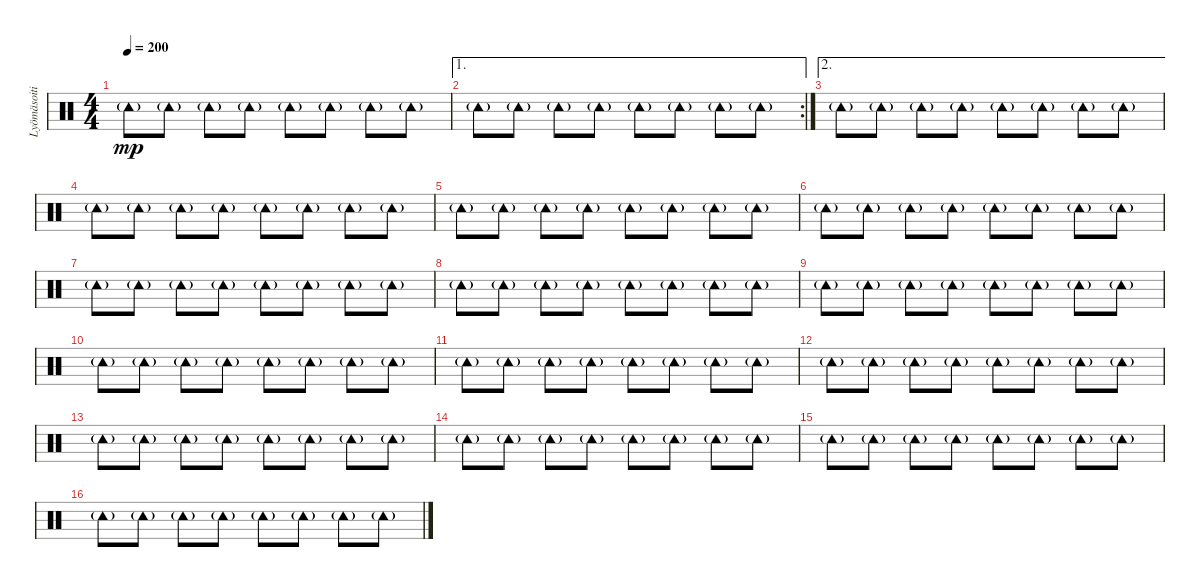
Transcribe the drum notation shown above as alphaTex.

\track ("Lyömäsoitin" "Lyömäsoiti") {instrument percussion}
\staff {score}
\articulation defaults
\ts (4 4)
\tempo 200
\clef neutral
\ks c "Tambourine (hit)"{g}.8{dy mp} "Tambourine (hit)"{g}.8 "Tambourine (hit)"{g}.8 "Tambourine (hit)"{g}.8 "Tambourine (hit)"{g}.8 "Tambourine (hit)"{g}.8 "Tambourine (hit)"{g}.8 "Tambourine (hit)"{g}.8
|
\ae 1
\rc 2 "Tambourine (hit)"{g}.8 "Tambourine (hit)"{g}.8 "Tambourine (hit)"{g}.8 "Tambourine (hit)"{g}.8 "Tambourine (hit)"{g}.8 "Tambourine (hit)"{g}.8 "Tambourine (hit)"{g}.8 "Tambourine (hit)"{g}.8
|
\ae 2 "Tambourine (hit)"{g}.8 "Tambourine (hit)"{g}.8 "Tambourine (hit)"{g}.8 "Tambourine (hit)"{g}.8 "Tambourine (hit)"{g}.8 "Tambourine (hit)"{g}.8 "Tambourine (hit)"{g}.8 "Tambourine (hit)"{g}.8
|
"Tambourine (hit)"{g}.8 "Tambourine (hit)"{g}.8 "Tambourine (hit)"{g}.8 "Tambourine (hit)"{g}.8 "Tambourine (hit)"{g}.8 "Tambourine (hit)"{g}.8 "Tambourine (hit)"{g}.8 "Tambourine (hit)"{g}.8 |
"Tambourine (hit)"{g}.8 "Tambourine (hit)"{g}.8 "Tambourine (hit)"{g}.8 "Tambourine (hit)"{g}.8 "Tambourine (hit)"{g}.8 "Tambourine (hit)"{g}.8 "Tambourine (hit)"{g}.8 "Tambourine (hit)"{g}.8 |
"Tambourine (hit)"{g}.8 "Tambourine (hit)"{g}.8 "Tambourine (hit)"{g}.8 "Tambourine (hit)"{g}.8 "Tambourine (hit)"{g}.8 "Tambourine (hit)"{g}.8 "Tambourine (hit)"{g}.8 "Tambourine (hit)"{g}.8 |
"Tambourine (hit)"{g}.8 "Tambourine (hit)"{g}.8 "Tambourine (hit)"{g}.8 "Tambourine (hit)"{g}.8 "Tambourine (hit)"{g}.8 "Tambourine (hit)"{g}.8 "Tambourine (hit)"{g}.8 "Tambourine (hit)"{g}.8 |
"Tambourine (hit)"{g}.8 "Tambourine (hit)"{g}.8 "Tambourine (hit)"{g}.8 "Tambourine (hit)"{g}.8 "Tambourine (hit)"{g}.8 "Tambourine (hit)"{g}.8 "Tambourine (hit)"{g}.8 "Tambourine (hit)"{g}.8 |
"Tambourine (hit)"{g}.8 "Tambourine (hit)"{g}.8 "Tambourine (hit)"{g}.8 "Tambourine (hit)"{g}.8 "Tambourine (hit)"{g}.8 "Tambourine (hit)"{g}.8 "Tambourine (hit)"{g}.8 "Tambourine (hit)"{g}.8 |
"Tambourine (hit)"{g}.8 "Tambourine (hit)"{g}.8 "Tambourine (hit)"{g}.8 "Tambourine (hit)"{g}.8 "Tambourine (hit)"{g}.8 "Tambourine (hit)"{g}.8 "Tambourine (hit)"{g}.8 "Tambourine (hit)"{g}.8 |
"Tambourine (hit)"{g}.8 "Tambourine (hit)"{g}.8 "Tambourine (hit)"{g}.8 "Tambourine (hit)"{g}.8 "Tambourine (hit)"{g}.8 "Tambourine (hit)"{g}.8 "Tambourine (hit)"{g}.8 "Tambourine (hit)"{g}.8 |
"Tambourine (hit)"{g}.8 "Tambourine (hit)"{g}.8 "Tambourine (hit)"{g}.8 "Tambourine (hit)"{g}.8 "Tambourine (hit)"{g}.8 "Tambourine (hit)"{g}.8 "Tambourine (hit)"{g}.8 "Tambourine (hit)"{g}.8 |
"Tambourine (hit)"{g}.8 "Tambourine (hit)"{g}.8 "Tambourine (hit)"{g}.8 "Tambourine (hit)"{g}.8 "Tambourine (hit)"{g}.8 "Tambourine (hit)"{g}.8 "Tambourine (hit)"{g}.8 "Tambourine (hit)"{g}.8 |
"Tambourine (hit)"{g}.8 "Tambourine (hit)"{g}.8 "Tambourine (hit)"{g}.8 "Tambourine (hit)"{g}.8 "Tambourine (hit)"{g}.8 "Tambourine (hit)"{g}.8 "Tambourine (hit)"{g}.8 "Tambourine (hit)"{g}.8 |
"Tambourine (hit)"{g}.8 "Tambourine (hit)"{g}.8 "Tambourine (hit)"{g}.8 "Tambourine (hit)"{g}.8 "Tambourine (hit)"{g}.8 "Tambourine (hit)"{g}.8 "Tambourine (hit)"{g}.8 "Tambourine (hit)"{g}.8 |
"Tambourine (hit)"{g}.8 "Tambourine (hit)"{g}.8 "Tambourine (hit)"{g}.8 "Tambourine (hit)"{g}.8 "Tambourine (hit)"{g}.8 "Tambourine (hit)"{g}.8 "Tambourine (hit)"{g}.8 "Tambourine (hit)"{g}.8
